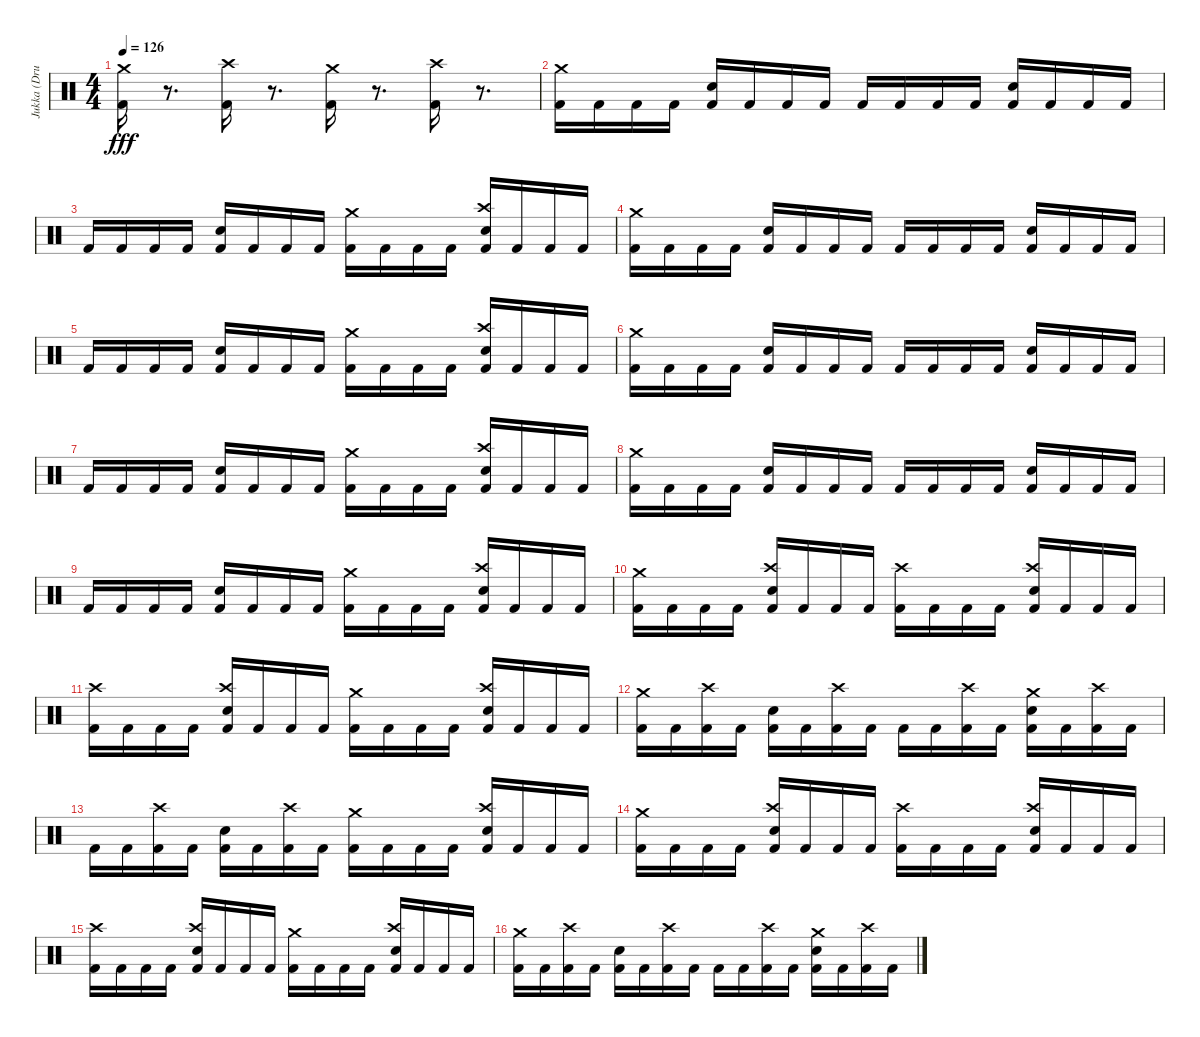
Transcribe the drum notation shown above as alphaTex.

\track ("Jukka (Drums)" "Jukka (Dru") {instrument percussion}
\staff {score}
\articulation defaults
\ts (4 4)
\tempo 126
\clef neutral
\ks c
("Kick (hit) 2" "Crash medium (hit)").16{dy fff} r.8{d} ("Kick (hit) 2" "Crash high (hit)").16 r.8{d} ("Kick (hit) 2" "Crash medium (hit)").16 r.8{d} ("Kick (hit) 2" "Crash high (hit)").16 r.8{d} |
("Kick (hit) 2" "Crash medium (hit)").16 "Kick (hit) 2".16 "Kick (hit) 2".16 "Kick (hit) 2".16 ("Kick (hit) 2" "Electric Snare (hit)").16 "Kick (hit) 2".16 "Kick (hit) 2".16 "Kick (hit) 2".16 "Kick (hit) 2".16 "Kick (hit) 2".16 "Kick (hit) 2".16 "Kick (hit) 2".16 ("Kick (hit) 2" "Electric Snare (hit)").16 "Kick (hit) 2".16 "Kick (hit) 2".16 "Kick (hit) 2".16 |
"Kick (hit) 2".16 "Kick (hit) 2".16 "Kick (hit) 2".16 "Kick (hit) 2".16 ("Kick (hit) 2" "Electric Snare (hit)").16 "Kick (hit) 2".16 "Kick (hit) 2".16 "Kick (hit) 2".16 ("Kick (hit) 2" "Crash medium (hit)").16 "Kick (hit) 2".16 "Kick (hit) 2".16 "Kick (hit) 2".16 ("Kick (hit) 2" "Electric Snare (hit)" "Crash high (hit)").16 "Kick (hit) 2".16 "Kick (hit) 2".16 "Kick (hit) 2".16 |
("Kick (hit) 2" "Crash medium (hit)").16 "Kick (hit) 2".16 "Kick (hit) 2".16 "Kick (hit) 2".16 ("Kick (hit) 2" "Electric Snare (hit)").16 "Kick (hit) 2".16 "Kick (hit) 2".16 "Kick (hit) 2".16 "Kick (hit) 2".16 "Kick (hit) 2".16 "Kick (hit) 2".16 "Kick (hit) 2".16 ("Kick (hit) 2" "Electric Snare (hit)").16 "Kick (hit) 2".16 "Kick (hit) 2".16 "Kick (hit) 2".16 |
"Kick (hit) 2".16 "Kick (hit) 2".16 "Kick (hit) 2".16 "Kick (hit) 2".16 ("Kick (hit) 2" "Electric Snare (hit)").16 "Kick (hit) 2".16 "Kick (hit) 2".16 "Kick (hit) 2".16 ("Kick (hit) 2" "Crash medium (hit)").16 "Kick (hit) 2".16 "Kick (hit) 2".16 "Kick (hit) 2".16 ("Kick (hit) 2" "Electric Snare (hit)" "Crash high (hit)").16 "Kick (hit) 2".16 "Kick (hit) 2".16 "Kick (hit) 2".16 |
("Kick (hit) 2" "Crash medium (hit)").16 "Kick (hit) 2".16 "Kick (hit) 2".16 "Kick (hit) 2".16 ("Kick (hit) 2" "Electric Snare (hit)").16 "Kick (hit) 2".16 "Kick (hit) 2".16 "Kick (hit) 2".16 "Kick (hit) 2".16 "Kick (hit) 2".16 "Kick (hit) 2".16 "Kick (hit) 2".16 ("Kick (hit) 2" "Electric Snare (hit)").16 "Kick (hit) 2".16 "Kick (hit) 2".16 "Kick (hit) 2".16 |
"Kick (hit) 2".16 "Kick (hit) 2".16 "Kick (hit) 2".16 "Kick (hit) 2".16 ("Kick (hit) 2" "Electric Snare (hit)").16 "Kick (hit) 2".16 "Kick (hit) 2".16 "Kick (hit) 2".16 ("Kick (hit) 2" "Crash medium (hit)").16 "Kick (hit) 2".16 "Kick (hit) 2".16 "Kick (hit) 2".16 ("Kick (hit) 2" "Electric Snare (hit)" "Crash high (hit)").16 "Kick (hit) 2".16 "Kick (hit) 2".16 "Kick (hit) 2".16 |
("Kick (hit) 2" "Crash medium (hit)").16 "Kick (hit) 2".16 "Kick (hit) 2".16 "Kick (hit) 2".16 ("Kick (hit) 2" "Electric Snare (hit)").16 "Kick (hit) 2".16 "Kick (hit) 2".16 "Kick (hit) 2".16 "Kick (hit) 2".16 "Kick (hit) 2".16 "Kick (hit) 2".16 "Kick (hit) 2".16 ("Kick (hit) 2" "Electric Snare (hit)").16 "Kick (hit) 2".16 "Kick (hit) 2".16 "Kick (hit) 2".16 |
"Kick (hit) 2".16 "Kick (hit) 2".16 "Kick (hit) 2".16 "Kick (hit) 2".16 ("Kick (hit) 2" "Electric Snare (hit)").16 "Kick (hit) 2".16 "Kick (hit) 2".16 "Kick (hit) 2".16 ("Kick (hit) 2" "Crash medium (hit)").16 "Kick (hit) 2".16 "Kick (hit) 2".16 "Kick (hit) 2".16 ("Electric Snare (hit)" "Kick (hit) 2" "Crash high (hit)").16 "Kick (hit) 2".16 "Kick (hit) 2".16 "Kick (hit) 2".16 |
("Kick (hit) 2" "Crash medium (hit)").16 "Kick (hit) 2".16 "Kick (hit) 2".16 "Kick (hit) 2".16 ("Kick (hit) 2" "Electric Snare (hit)" "Crash high (hit)").16 "Kick (hit) 2".16 "Kick (hit) 2".16 "Kick (hit) 2".16 ("Kick (hit) 2" "Crash high (hit)").16 "Kick (hit) 2".16 "Kick (hit) 2".16 "Kick (hit) 2".16 ("Kick (hit) 2" "Electric Snare (hit)" "Crash high (hit)").16 "Kick (hit) 2".16 "Kick (hit) 2".16 "Kick (hit) 2".16 |
("Kick (hit) 2" "Crash high (hit)").16 "Kick (hit) 2".16 "Kick (hit) 2".16 "Kick (hit) 2".16 ("Kick (hit) 2" "Electric Snare (hit)" "Crash high (hit)").16 "Kick (hit) 2".16 "Kick (hit) 2".16 "Kick (hit) 2".16 ("Kick (hit) 2" "Crash medium (hit)").16 "Kick (hit) 2".16 "Kick (hit) 2".16 "Kick (hit) 2".16 ("Kick (hit) 2" "Electric Snare (hit)" "Crash high (hit)").16 "Kick (hit) 2".16 "Kick (hit) 2".16 "Kick (hit) 2".16 |
("Kick (hit) 2" "Crash medium (hit)").16 "Kick (hit) 2".16 ("Kick (hit) 2" "Crash high (hit)").16 "Kick (hit) 2".16 ("Kick (hit) 2" "Electric Snare (hit)").16 "Kick (hit) 2".16 ("Kick (hit) 2" "Crash high (hit)").16 "Kick (hit) 2".16 "Kick (hit) 2".16 "Kick (hit) 2".16 ("Kick (hit) 2" "Crash high (hit)").16 "Kick (hit) 2".16 ("Kick (hit) 2" "Electric Snare (hit)" "Crash medium (hit)").16 "Kick (hit) 2".16 ("Kick (hit) 2" "Crash high (hit)").16 "Kick (hit) 2".16 |
"Kick (hit) 2".16 "Kick (hit) 2".16 ("Kick (hit) 2" "Crash high (hit)").16 "Kick (hit) 2".16 ("Kick (hit) 2" "Electric Snare (hit)").16 "Kick (hit) 2".16 ("Kick (hit) 2" "Crash high (hit)").16 "Kick (hit) 2".16 ("Kick (hit) 2" "Crash medium (hit)").16 "Kick (hit) 2".16 "Kick (hit) 2".16 "Kick (hit) 2".16 ("Kick (hit) 2" "Electric Snare (hit)" "Crash high (hit)").16 "Kick (hit) 2".16 "Kick (hit) 2".16 "Kick (hit) 2".16 |
("Kick (hit) 2" "Crash medium (hit)").16 "Kick (hit) 2".16 "Kick (hit) 2".16 "Kick (hit) 2".16 ("Kick (hit) 2" "Electric Snare (hit)" "Crash high (hit)").16 "Kick (hit) 2".16 "Kick (hit) 2".16 "Kick (hit) 2".16 ("Kick (hit) 2" "Crash high (hit)").16 "Kick (hit) 2".16 "Kick (hit) 2".16 "Kick (hit) 2".16 ("Kick (hit) 2" "Electric Snare (hit)" "Crash high (hit)").16 "Kick (hit) 2".16 "Kick (hit) 2".16 "Kick (hit) 2".16 |
("Kick (hit) 2" "Crash high (hit)").16 "Kick (hit) 2".16 "Kick (hit) 2".16 "Kick (hit) 2".16 ("Kick (hit) 2" "Electric Snare (hit)" "Crash high (hit)").16 "Kick (hit) 2".16 "Kick (hit) 2".16 "Kick (hit) 2".16 ("Kick (hit) 2" "Crash medium (hit)").16 "Kick (hit) 2".16 "Kick (hit) 2".16 "Kick (hit) 2".16 ("Kick (hit) 2" "Electric Snare (hit)" "Crash high (hit)").16 "Kick (hit) 2".16 "Kick (hit) 2".16 "Kick (hit) 2".16 |
("Kick (hit) 2" "Crash medium (hit)").16 "Kick (hit) 2".16 ("Kick (hit) 2" "Crash high (hit)").16 "Kick (hit) 2".16 ("Kick (hit) 2" "Electric Snare (hit)").16 "Kick (hit) 2".16 ("Kick (hit) 2" "Crash high (hit)").16 "Kick (hit) 2".16 "Kick (hit) 2".16 "Kick (hit) 2".16 ("Kick (hit) 2" "Crash high (hit)").16 "Kick (hit) 2".16 ("Kick (hit) 2" "Electric Snare (hit)" "Crash medium (hit)").16 "Kick (hit) 2".16 ("Kick (hit) 2" "Crash high (hit)").16 "Kick (hit) 2".16
